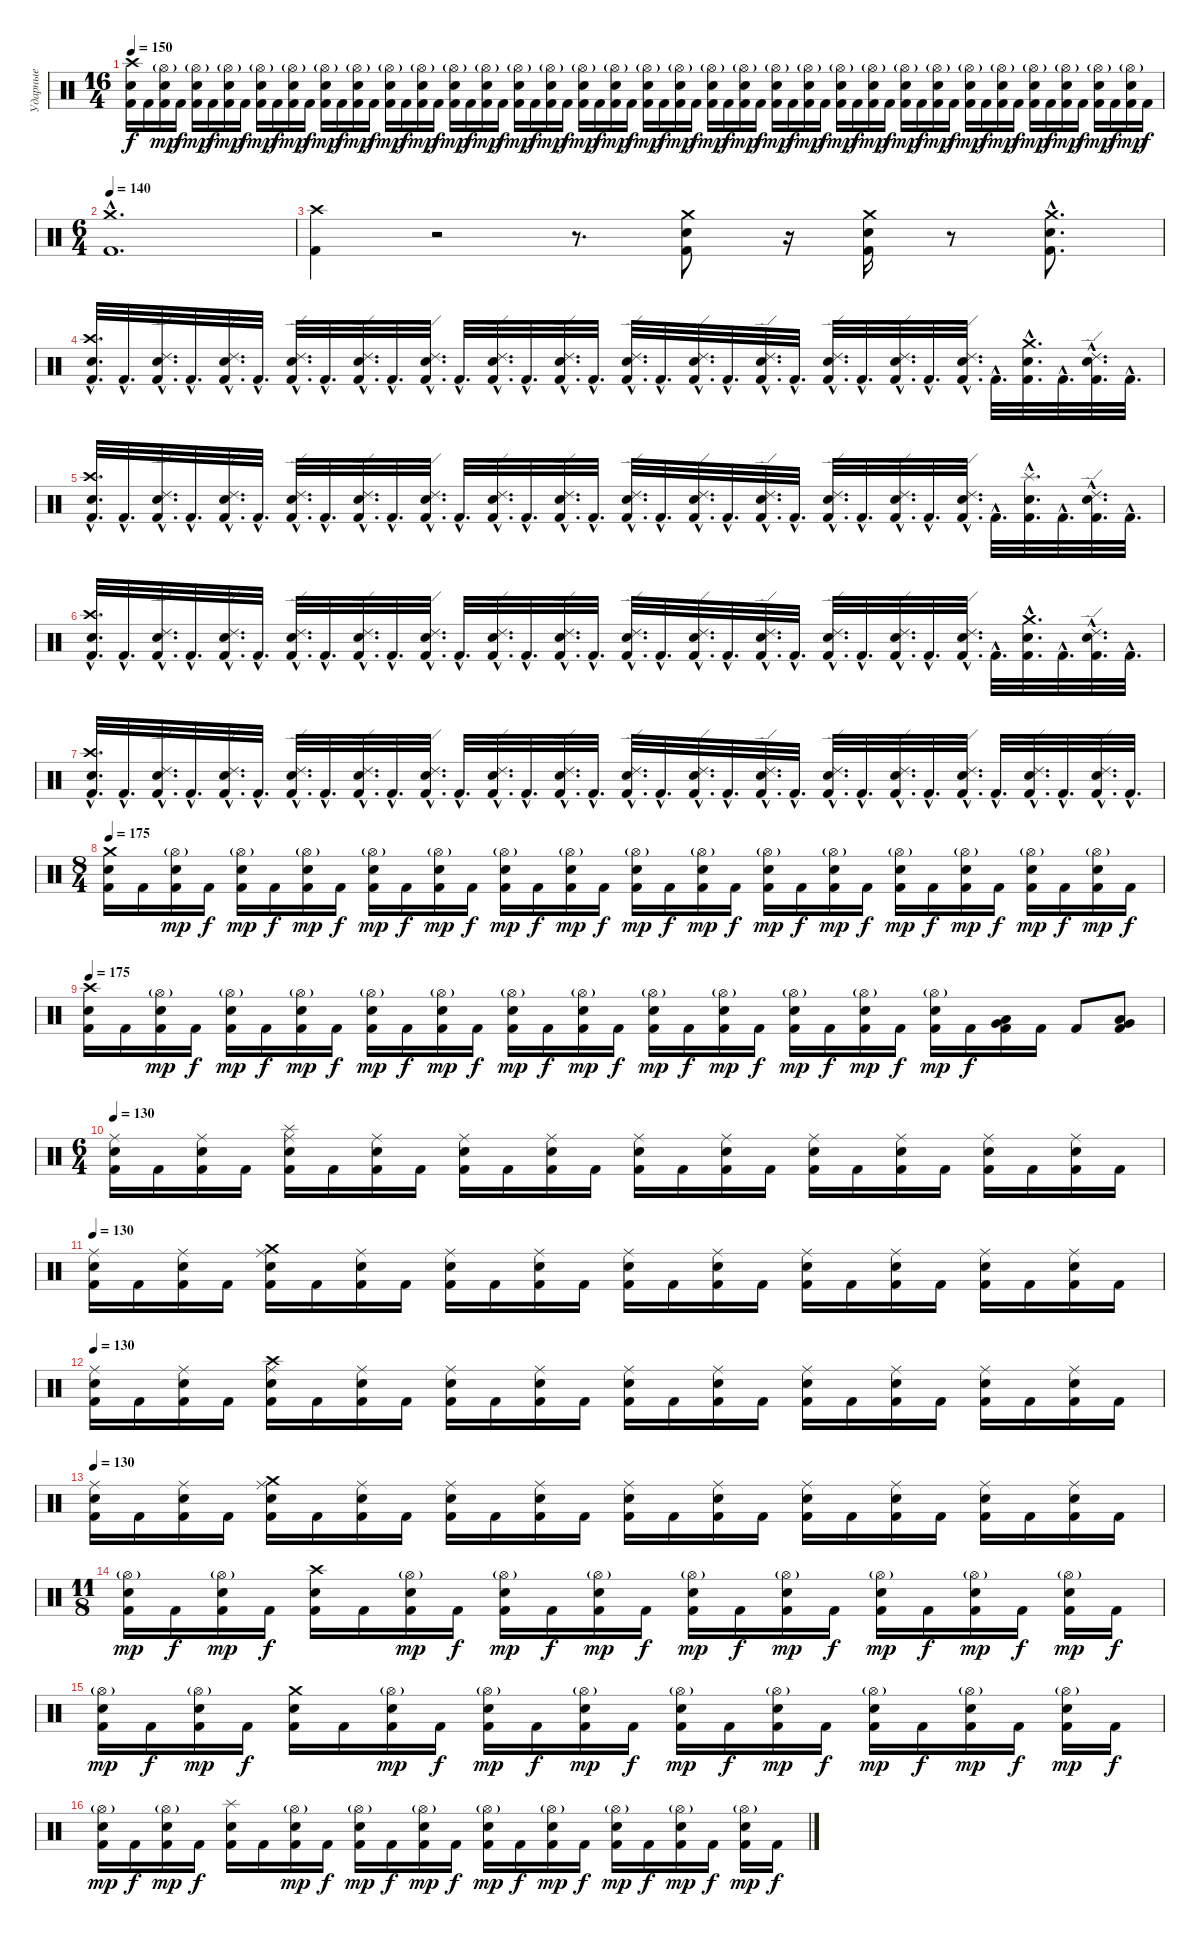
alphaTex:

\track ("Ударные" "Ударные") {instrument percussion}
\staff {score}
\articulation defaults
\ts (16 4)
\tempo 150
\clef neutral
\ks c
("Electric Snare (hit)" "Crash high (hit)" "Kick (hit) 2").16{dy f} "Kick (hit) 2".16 ("Electric Snare (hit)" "Hi-Hat (open)"{g} "Kick (hit) 2").16{dy mp} "Kick (hit) 2".16{dy f} ("Electric Snare (hit)" "Hi-Hat (open)"{g} "Kick (hit) 2").16{dy mp} "Kick (hit) 2".16{dy f} ("Electric Snare (hit)" "Hi-Hat (open)"{g} "Kick (hit) 2").16{dy mp} "Kick (hit) 2".16{dy f} ("Electric Snare (hit)" "Hi-Hat (open)"{g} "Kick (hit) 2").16{dy mp} "Kick (hit) 2".16{dy f} ("Electric Snare (hit)" "Hi-Hat (open)"{g} "Kick (hit) 2").16{dy mp} "Kick (hit) 2".16{dy f} ("Electric Snare (hit)" "Hi-Hat (open)"{g} "Kick (hit) 2").16{dy mp} "Kick (hit) 2".16{dy f} ("Electric Snare (hit)" "Hi-Hat (open)"{g} "Kick (hit) 2").16{dy mp} "Kick (hit) 2".16{dy f} ("Electric Snare (hit)" "Hi-Hat (open)"{g} "Kick (hit) 2").16{dy mp} "Kick (hit) 2".16{dy f} ("Electric Snare (hit)" "Hi-Hat (open)"{g} "Kick (hit) 2").16{dy mp} "Kick (hit) 2".16{dy f} ("Electric Snare (hit)" "Hi-Hat (open)"{g} "Kick (hit) 2").16{dy mp} "Kick (hit) 2".16{dy f} ("Electric Snare (hit)" "Hi-Hat (open)"{g} "Kick (hit) 2").16{dy mp} "Kick (hit) 2".16{dy f} ("Electric Snare (hit)" "Hi-Hat (open)"{g} "Kick (hit) 2").16{dy mp} "Kick (hit) 2".16{dy f} ("Electric Snare (hit)" "Hi-Hat (open)"{g} "Kick (hit) 2").16{dy mp} "Kick (hit) 2".16{dy f} ("Electric Snare (hit)" "Hi-Hat (open)"{g} "Kick (hit) 2").16{dy mp} "Kick (hit) 2".16{dy f} ("Electric Snare (hit)" "Hi-Hat (open)"{g} "Kick (hit) 2").16{dy mp} "Kick (hit) 2".16{dy f} ("Electric Snare (hit)" "Hi-Hat (open)"{g} "Kick (hit) 2").16{dy mp} "Kick (hit) 2".16{dy f} ("Electric Snare (hit)" "Hi-Hat (open)"{g} "Kick (hit) 2").16{dy mp} "Kick (hit) 2".16{dy f} ("Electric Snare (hit)" "Hi-Hat (open)"{g} "Kick (hit) 2").16{dy mp} "Kick (hit) 2".16{dy f} ("Electric Snare (hit)" "Hi-Hat (open)"{g} "Kick (hit) 2").16{dy mp} "Kick (hit) 2".16{dy f} ("Electric Snare (hit)" "Hi-Hat (open)"{g} "Kick (hit) 2").16{dy mp} "Kick (hit) 2".16{dy f} ("Electric Snare (hit)" "Hi-Hat (open)"{g} "Kick (hit) 2").16{dy mp} "Kick (hit) 2".16{dy f} ("Electric Snare (hit)" "Hi-Hat (open)"{g} "Kick (hit) 2").16{dy mp} "Kick (hit) 2".16{dy f} ("Electric Snare (hit)" "Hi-Hat (open)"{g} "Kick (hit) 2").16{dy mp} "Kick (hit) 2".16{dy f} ("Electric Snare (hit)" "Hi-Hat (open)"{g} "Kick (hit) 2").16{dy mp} "Kick (hit) 2".16{dy f} ("Electric Snare (hit)" "Hi-Hat (open)"{g} "Kick (hit) 2").16{dy mp} "Kick (hit) 2".16{dy f} ("Electric Snare (hit)" "Hi-Hat (open)"{g} "Kick (hit) 2").16{dy mp} "Kick (hit) 2".16{dy f} ("Electric Snare (hit)" "Hi-Hat (open)"{g} "Kick (hit) 2").16{dy mp} "Kick (hit) 2".16{dy f} ("Electric Snare (hit)" "Hi-Hat (open)"{g} "Kick (hit) 2").16{dy mp} "Kick (hit) 2".16{dy f} ("Electric Snare (hit)" "Hi-Hat (open)"{g} "Kick (hit) 2").16{dy mp} "Kick (hit) 2".16{dy f} ("Electric Snare (hit)" "Hi-Hat (open)"{g} "Kick (hit) 2").16{dy mp} "Kick (hit) 2".16{dy f} ("Electric Snare (hit)" "Hi-Hat (open)"{g} "Kick (hit) 2").16{dy mp} "Kick (hit) 2".16{dy f} |
\ts (6 4)
\tempo 140
("Crash medium (hit)"{hac} "Kick (hit) 2"{hac}).1{d} |
("Crash high (hit)" "Kick (hit) 2").4 r.2 r.8{d} ("Crash medium (hit)" "Electric Snare (hit)" "Kick (hit) 2").8 r.16 ("Crash medium (hit)" "Electric Snare (hit)" "Kick (hit) 2").16 r.8 ("Crash medium (hit)"{hac} "Electric Snare (hit)"{hac} "Kick (hit) 2"{hac}).8{d} |
("Crash high (hit)"{hac} "Electric Snare (hit)"{hac} "Kick (hit) 2"{hac}).32{d} "Kick (hit) 2"{hac}.32{d} ("Ride (edge) 2"{hac} "Electric Snare (hit)"{hac} "Kick (hit) 2"{hac}).32{d} "Kick (hit) 2"{hac}.32{d} ("Ride (edge) 2"{hac} "Electric Snare (hit)"{hac} "Kick (hit) 2"{hac}).32{d} "Kick (hit) 2"{hac}.32{d} ("Ride (edge) 2"{hac} "Electric Snare (hit)"{hac} "Kick (hit) 2"{hac}).32{d} "Kick (hit) 2"{hac}.32{d} ("Ride (edge) 2"{hac} "Electric Snare (hit)"{hac} "Kick (hit) 2"{hac}).32{d} "Kick (hit) 2"{hac}.32{d} ("Ride (edge) 2"{hac} "Electric Snare (hit)"{hac} "Kick (hit) 2"{hac}).32{d} "Kick (hit) 2"{hac}.32{d} ("Ride (edge) 2"{hac} "Electric Snare (hit)"{hac} "Kick (hit) 2"{hac}).32{d} "Kick (hit) 2"{hac}.32{d} ("Ride (edge) 2"{hac} "Electric Snare (hit)"{hac} "Kick (hit) 2"{hac}).32{d} "Kick (hit) 2"{hac}.32{d} ("Ride (edge) 2"{hac} "Electric Snare (hit)"{hac} "Kick (hit) 2"{hac}).32{d} "Kick (hit) 2"{hac}.32{d} ("Ride (edge) 2"{hac} "Electric Snare (hit)"{hac} "Kick (hit) 2"{hac}).32{d} "Kick (hit) 2"{hac}.32{d} ("Ride (edge) 2"{hac} "Electric Snare (hit)"{hac} "Kick (hit) 2"{hac}).32{d} "Kick (hit) 2"{hac}.32{d} ("Ride (edge) 2"{hac} "Electric Snare (hit)"{hac} "Kick (hit) 2"{hac}).32{d} "Kick (hit) 2"{hac}.32{d} ("Ride (edge) 2"{hac} "Electric Snare (hit)"{hac} "Kick (hit) 2"{hac}).32{d} "Kick (hit) 2"{hac}.32{d} ("Ride (edge) 2"{hac} "Electric Snare (hit)"{hac} "Kick (hit) 2"{hac}).32{d} "Kick (hit) 2"{hac}.32{d} ("Crash medium (hit)"{hac} "Electric Snare (hit)"{hac} "Kick (hit) 2"{hac}).32{d} "Kick (hit) 2"{hac}.32{d} ("Ride (edge) 2"{hac} "Electric Snare (hit)"{hac} "Kick (hit) 2"{hac}).32{d} "Kick (hit) 2"{hac}.32{d} |
("Crash high (hit)"{hac} "Electric Snare (hit)"{hac} "Kick (hit) 2"{hac}).32{d} "Kick (hit) 2"{hac}.32{d} ("Ride (edge) 2"{hac} "Electric Snare (hit)"{hac} "Kick (hit) 2"{hac}).32{d} "Kick (hit) 2"{hac}.32{d} ("Ride (edge) 2"{hac} "Electric Snare (hit)"{hac} "Kick (hit) 2"{hac}).32{d} "Kick (hit) 2"{hac}.32{d} ("Ride (edge) 2"{hac} "Electric Snare (hit)"{hac} "Kick (hit) 2"{hac}).32{d} "Kick (hit) 2"{hac}.32{d} ("Ride (edge) 2"{hac} "Electric Snare (hit)"{hac} "Kick (hit) 2"{hac}).32{d} "Kick (hit) 2"{hac}.32{d} ("Ride (edge) 2"{hac} "Electric Snare (hit)"{hac} "Kick (hit) 2"{hac}).32{d} "Kick (hit) 2"{hac}.32{d} ("Ride (edge) 2"{hac} "Electric Snare (hit)"{hac} "Kick (hit) 2"{hac}).32{d} "Kick (hit) 2"{hac}.32{d} ("Ride (edge) 2"{hac} "Electric Snare (hit)"{hac} "Kick (hit) 2"{hac}).32{d} "Kick (hit) 2"{hac}.32{d} ("Ride (edge) 2"{hac} "Electric Snare (hit)"{hac} "Kick (hit) 2"{hac}).32{d} "Kick (hit) 2"{hac}.32{d} ("Ride (edge) 2"{hac} "Electric Snare (hit)"{hac} "Kick (hit) 2"{hac}).32{d} "Kick (hit) 2"{hac}.32{d} ("Ride (edge) 2"{hac} "Electric Snare (hit)"{hac} "Kick (hit) 2"{hac}).32{d} "Kick (hit) 2"{hac}.32{d} ("Ride (edge) 2"{hac} "Electric Snare (hit)"{hac} "Kick (hit) 2"{hac}).32{d} "Kick (hit) 2"{hac}.32{d} ("Ride (edge) 2"{hac} "Electric Snare (hit)"{hac} "Kick (hit) 2"{hac}).32{d} "Kick (hit) 2"{hac}.32{d} ("Ride (edge) 2"{hac} "Electric Snare (hit)"{hac} "Kick (hit) 2"{hac}).32{d} "Kick (hit) 2"{hac}.32{d} ("Splash (hit)"{hac} "Electric Snare (hit)"{hac} "Kick (hit) 2"{hac}).32{d} "Kick (hit) 2"{hac}.32{d} ("Ride (edge) 2"{hac} "Electric Snare (hit)"{hac} "Kick (hit) 2"{hac}).32{d} "Kick (hit) 2"{hac}.32{d} |
("Crash high (hit)"{hac} "Electric Snare (hit)"{hac} "Kick (hit) 2"{hac}).32{d} "Kick (hit) 2"{hac}.32{d} ("Ride (edge) 2"{hac} "Electric Snare (hit)"{hac} "Kick (hit) 2"{hac}).32{d} "Kick (hit) 2"{hac}.32{d} ("Ride (edge) 2"{hac} "Electric Snare (hit)"{hac} "Kick (hit) 2"{hac}).32{d} "Kick (hit) 2"{hac}.32{d} ("Ride (edge) 2"{hac} "Electric Snare (hit)"{hac} "Kick (hit) 2"{hac}).32{d} "Kick (hit) 2"{hac}.32{d} ("Ride (edge) 2"{hac} "Electric Snare (hit)"{hac} "Kick (hit) 2"{hac}).32{d} "Kick (hit) 2"{hac}.32{d} ("Ride (edge) 2"{hac} "Electric Snare (hit)"{hac} "Kick (hit) 2"{hac}).32{d} "Kick (hit) 2"{hac}.32{d} ("Ride (edge) 2"{hac} "Electric Snare (hit)"{hac} "Kick (hit) 2"{hac}).32{d} "Kick (hit) 2"{hac}.32{d} ("Ride (edge) 2"{hac} "Electric Snare (hit)"{hac} "Kick (hit) 2"{hac}).32{d} "Kick (hit) 2"{hac}.32{d} ("Ride (edge) 2"{hac} "Electric Snare (hit)"{hac} "Kick (hit) 2"{hac}).32{d} "Kick (hit) 2"{hac}.32{d} ("Ride (edge) 2"{hac} "Electric Snare (hit)"{hac} "Kick (hit) 2"{hac}).32{d} "Kick (hit) 2"{hac}.32{d} ("Ride (edge) 2"{hac} "Electric Snare (hit)"{hac} "Kick (hit) 2"{hac}).32{d} "Kick (hit) 2"{hac}.32{d} ("Ride (edge) 2"{hac} "Electric Snare (hit)"{hac} "Kick (hit) 2"{hac}).32{d} "Kick (hit) 2"{hac}.32{d} ("Ride (edge) 2"{hac} "Electric Snare (hit)"{hac} "Kick (hit) 2"{hac}).32{d} "Kick (hit) 2"{hac}.32{d} ("Ride (edge) 2"{hac} "Electric Snare (hit)"{hac} "Kick (hit) 2"{hac}).32{d} "Kick (hit) 2"{hac}.32{d} ("Crash medium (hit)"{hac} "Electric Snare (hit)"{hac} "Kick (hit) 2"{hac}).32{d} "Kick (hit) 2"{hac}.32{d} ("Ride (edge) 2"{hac} "Electric Snare (hit)"{hac} "Kick (hit) 2"{hac}).32{d} "Kick (hit) 2"{hac}.32{d} |
("Crash high (hit)"{hac} "Electric Snare (hit)"{hac} "Kick (hit) 2"{hac}).32{d} "Kick (hit) 2"{hac}.32{d} ("Ride (edge) 2"{hac} "Electric Snare (hit)"{hac} "Kick (hit) 2"{hac}).32{d} "Kick (hit) 2"{hac}.32{d} ("Ride (edge) 2"{hac} "Electric Snare (hit)"{hac} "Kick (hit) 2"{hac}).32{d} "Kick (hit) 2"{hac}.32{d} ("Ride (edge) 2"{hac} "Electric Snare (hit)"{hac} "Kick (hit) 2"{hac}).32{d} "Kick (hit) 2"{hac}.32{d} ("Ride (edge) 2"{hac} "Electric Snare (hit)"{hac} "Kick (hit) 2"{hac}).32{d} "Kick (hit) 2"{hac}.32{d} ("Ride (edge) 2"{hac} "Electric Snare (hit)"{hac} "Kick (hit) 2"{hac}).32{d} "Kick (hit) 2"{hac}.32{d} ("Ride (edge) 2"{hac} "Electric Snare (hit)"{hac} "Kick (hit) 2"{hac}).32{d} "Kick (hit) 2"{hac}.32{d} ("Ride (edge) 2"{hac} "Electric Snare (hit)"{hac} "Kick (hit) 2"{hac}).32{d} "Kick (hit) 2"{hac}.32{d} ("Ride (edge) 2"{hac} "Electric Snare (hit)"{hac} "Kick (hit) 2"{hac}).32{d} "Kick (hit) 2"{hac}.32{d} ("Ride (edge) 2"{hac} "Electric Snare (hit)"{hac} "Kick (hit) 2"{hac}).32{d} "Kick (hit) 2"{hac}.32{d} ("Ride (edge) 2"{hac} "Electric Snare (hit)"{hac} "Kick (hit) 2"{hac}).32{d} "Kick (hit) 2"{hac}.32{d} ("Ride (edge) 2"{hac} "Electric Snare (hit)"{hac} "Kick (hit) 2"{hac}).32{d} "Kick (hit) 2"{hac}.32{d} ("Ride (edge) 2"{hac} "Electric Snare (hit)"{hac} "Kick (hit) 2"{hac}).32{d} "Kick (hit) 2"{hac}.32{d} ("Ride (edge) 2"{hac} "Electric Snare (hit)"{hac} "Kick (hit) 2"{hac}).32{d} "Kick (hit) 2"{hac}.32{d} ("Ride (edge) 2"{hac} "Electric Snare (hit)"{hac} "Kick (hit) 2"{hac}).32{d} "Kick (hit) 2"{hac}.32{d} ("Ride (edge) 2"{hac} "Electric Snare (hit)"{hac} "Kick (hit) 2"{hac}).32{d} "Kick (hit) 2"{hac}.32{d} |
\ts (8 4)
\tempo 175
("Crash medium (hit)" "Electric Snare (hit)" "Kick (hit) 2").16 "Kick (hit) 2".16 ("Hi-Hat (open)"{g} "Electric Snare (hit)" "Kick (hit) 2").16{dy mp} "Kick (hit) 2".16{dy f} ("Hi-Hat (open)"{g} "Electric Snare (hit)" "Kick (hit) 2").16{dy mp} "Kick (hit) 2".16{dy f} ("Hi-Hat (open)"{g} "Electric Snare (hit)" "Kick (hit) 2").16{dy mp} "Kick (hit) 2".16{dy f} ("Hi-Hat (open)"{g} "Electric Snare (hit)" "Kick (hit) 2").16{dy mp} "Kick (hit) 2".16{dy f} ("Hi-Hat (open)"{g} "Electric Snare (hit)" "Kick (hit) 2").16{dy mp} "Kick (hit) 2".16{dy f} ("Hi-Hat (open)"{g} "Electric Snare (hit)" "Kick (hit) 2").16{dy mp} "Kick (hit) 2".16{dy f} ("Hi-Hat (open)"{g} "Electric Snare (hit)" "Kick (hit) 2").16{dy mp} "Kick (hit) 2".16{dy f} ("Hi-Hat (open)"{g} "Electric Snare (hit)" "Kick (hit) 2").16{dy mp} "Kick (hit) 2".16{dy f} ("Hi-Hat (open)"{g} "Electric Snare (hit)" "Kick (hit) 2").16{dy mp} "Kick (hit) 2".16{dy f} ("Hi-Hat (open)"{g} "Electric Snare (hit)" "Kick (hit) 2").16{dy mp} "Kick (hit) 2".16{dy f} ("Hi-Hat (open)"{g} "Electric Snare (hit)" "Kick (hit) 2").16{dy mp} "Kick (hit) 2".16{dy f} ("Hi-Hat (open)"{g} "Electric Snare (hit)" "Kick (hit) 2").16{dy mp} "Kick (hit) 2".16{dy f} ("Hi-Hat (open)"{g} "Electric Snare (hit)" "Kick (hit) 2").16{dy mp} "Kick (hit) 2".16{dy f} ("Hi-Hat (open)"{g} "Electric Snare (hit)" "Kick (hit) 2").16{dy mp} "Kick (hit) 2".16{dy f} ("Hi-Hat (open)"{g} "Electric Snare (hit)" "Kick (hit) 2").16{dy mp} "Kick (hit) 2".16{dy f} |
\tempo 175
("Crash high (hit)" "Electric Snare (hit)" "Kick (hit) 2").16 "Kick (hit) 2".16 ("Hi-Hat (open)"{g} "Electric Snare (hit)" "Kick (hit) 2").16{dy mp} "Kick (hit) 2".16{dy f} ("Hi-Hat (open)"{g} "Electric Snare (hit)" "Kick (hit) 2").16{dy mp} "Kick (hit) 2".16{dy f} ("Hi-Hat (open)"{g} "Electric Snare (hit)" "Kick (hit) 2").16{dy mp} "Kick (hit) 2".16{dy f} ("Hi-Hat (open)"{g} "Electric Snare (hit)" "Kick (hit) 2").16{dy mp} "Kick (hit) 2".16{dy f} ("Hi-Hat (open)"{g} "Electric Snare (hit)" "Kick (hit) 2").16{dy mp} "Kick (hit) 2".16{dy f} ("Hi-Hat (open)"{g} "Electric Snare (hit)" "Kick (hit) 2").16{dy mp} "Kick (hit) 2".16{dy f} ("Hi-Hat (open)"{g} "Electric Snare (hit)" "Kick (hit) 2").16{dy mp} "Kick (hit) 2".16{dy f} ("Hi-Hat (open)"{g} "Electric Snare (hit)" "Kick (hit) 2").16{dy mp} "Kick (hit) 2".16{dy f} ("Hi-Hat (open)"{g} "Electric Snare (hit)" "Kick (hit) 2").16{dy mp} "Kick (hit) 2".16{dy f} ("Hi-Hat (open)"{g} "Electric Snare (hit)" "Kick (hit) 2").16{dy mp} "Kick (hit) 2".16{dy f} ("Hi-Hat (open)"{g} "Electric Snare (hit)" "Kick (hit) 2").16{dy mp} "Kick (hit) 2".16{dy f} ("Hi-Hat (open)"{g} "Electric Snare (hit)" "Kick (hit) 2").16{dy mp} "Kick (hit) 2".16{dy f} ("Low Tom (hit)" "Very Low Tom (hit)" "Kick (hit) 2").16 "Kick (hit) 2".16 "Kick (hit) 2".8 ("Low Tom (hit)" "Very Low Tom (hit)" "Kick (hit) 2").8 |
\ts (6 4)
\tempo 130
("Electric Snare (hit)" "Ride (middle)" "Kick (hit) 2").16 "Kick (hit) 2".16 ("Electric Snare (hit)" "Ride (middle)" "Kick (hit) 2").16 "Kick (hit) 2".16 ("Splash (hit)" "Electric Snare (hit)" "Ride (middle)" "Kick (hit) 2").16 "Kick (hit) 2".16 ("Electric Snare (hit)" "Ride (middle)" "Kick (hit) 2").16 "Kick (hit) 2".16 ("Electric Snare (hit)" "Ride (middle)" "Kick (hit) 2").16 "Kick (hit) 2".16 ("Electric Snare (hit)" "Ride (middle)" "Kick (hit) 2").16 "Kick (hit) 2".16 ("Electric Snare (hit)" "Ride (middle)" "Kick (hit) 2").16 "Kick (hit) 2".16 ("Electric Snare (hit)" "Ride (middle)" "Kick (hit) 2").16 "Kick (hit) 2".16 ("Electric Snare (hit)" "Ride (middle)" "Kick (hit) 2").16 "Kick (hit) 2".16 ("Electric Snare (hit)" "Ride (middle)" "Kick (hit) 2").16 "Kick (hit) 2".16 ("Electric Snare (hit)" "Ride (middle)" "Kick (hit) 2").16 "Kick (hit) 2".16 ("Electric Snare (hit)" "Ride (middle)" "Kick (hit) 2").16 "Kick (hit) 2".16 |
\tempo 130
("Electric Snare (hit)" "Ride (middle)" "Kick (hit) 2").16 "Kick (hit) 2".16 ("Electric Snare (hit)" "Ride (middle)" "Kick (hit) 2").16 "Kick (hit) 2".16 ("Crash medium (hit)" "Electric Snare (hit)" "Ride (middle)" "Kick (hit) 2").16 "Kick (hit) 2".16 ("Electric Snare (hit)" "Ride (middle)" "Kick (hit) 2").16 "Kick (hit) 2".16 ("Electric Snare (hit)" "Ride (middle)" "Kick (hit) 2").16 "Kick (hit) 2".16 ("Electric Snare (hit)" "Ride (middle)" "Kick (hit) 2").16 "Kick (hit) 2".16 ("Electric Snare (hit)" "Ride (middle)" "Kick (hit) 2").16 "Kick (hit) 2".16 ("Electric Snare (hit)" "Ride (middle)" "Kick (hit) 2").16 "Kick (hit) 2".16 ("Electric Snare (hit)" "Ride (middle)" "Kick (hit) 2").16 "Kick (hit) 2".16 ("Electric Snare (hit)" "Ride (middle)" "Kick (hit) 2").16 "Kick (hit) 2".16 ("Electric Snare (hit)" "Ride (middle)" "Kick (hit) 2").16 "Kick (hit) 2".16 ("Electric Snare (hit)" "Ride (middle)" "Kick (hit) 2").16 "Kick (hit) 2".16 |
\tempo 130
("Electric Snare (hit)" "Ride (middle)" "Kick (hit) 2").16 "Kick (hit) 2".16 ("Electric Snare (hit)" "Ride (middle)" "Kick (hit) 2").16 "Kick (hit) 2".16 ("Crash high (hit)" "Electric Snare (hit)" "Ride (middle)" "Kick (hit) 2").16 "Kick (hit) 2".16 ("Electric Snare (hit)" "Ride (middle)" "Kick (hit) 2").16 "Kick (hit) 2".16 ("Electric Snare (hit)" "Ride (middle)" "Kick (hit) 2").16 "Kick (hit) 2".16 ("Electric Snare (hit)" "Ride (middle)" "Kick (hit) 2").16 "Kick (hit) 2".16 ("Electric Snare (hit)" "Ride (middle)" "Kick (hit) 2").16 "Kick (hit) 2".16 ("Electric Snare (hit)" "Ride (middle)" "Kick (hit) 2").16 "Kick (hit) 2".16 ("Electric Snare (hit)" "Ride (middle)" "Kick (hit) 2").16 "Kick (hit) 2".16 ("Electric Snare (hit)" "Ride (middle)" "Kick (hit) 2").16 "Kick (hit) 2".16 ("Electric Snare (hit)" "Ride (middle)" "Kick (hit) 2").16 "Kick (hit) 2".16 ("Electric Snare (hit)" "Ride (middle)" "Kick (hit) 2").16 "Kick (hit) 2".16 |
\tempo 130
("Electric Snare (hit)" "Ride (middle)" "Kick (hit) 2").16 "Kick (hit) 2".16 ("Electric Snare (hit)" "Ride (middle)" "Kick (hit) 2").16 "Kick (hit) 2".16 ("Crash medium (hit)" "Electric Snare (hit)" "Ride (middle)" "Kick (hit) 2").16 "Kick (hit) 2".16 ("Electric Snare (hit)" "Ride (middle)" "Kick (hit) 2").16 "Kick (hit) 2".16 ("Electric Snare (hit)" "Ride (middle)" "Kick (hit) 2").16 "Kick (hit) 2".16 ("Electric Snare (hit)" "Ride (middle)" "Kick (hit) 2").16 "Kick (hit) 2".16 ("Electric Snare (hit)" "Ride (middle)" "Kick (hit) 2").16 "Kick (hit) 2".16 ("Electric Snare (hit)" "Ride (middle)" "Kick (hit) 2").16 "Kick (hit) 2".16 ("Electric Snare (hit)" "Ride (middle)" "Kick (hit) 2").16 "Kick (hit) 2".16 ("Electric Snare (hit)" "Ride (middle)" "Kick (hit) 2").16 "Kick (hit) 2".16 ("Electric Snare (hit)" "Ride (middle)" "Kick (hit) 2").16 "Kick (hit) 2".16 ("Electric Snare (hit)" "Ride (middle)" "Kick (hit) 2").16 "Kick (hit) 2".16 |
\ts (11 8)
("Electric Snare (hit)" "Hi-Hat (open)"{g} "Kick (hit) 2").16{dy mp} "Kick (hit) 2".16{dy f} ("Electric Snare (hit)" "Hi-Hat (open)"{g} "Kick (hit) 2").16{dy mp} "Kick (hit) 2".16{dy f} ("Electric Snare (hit)" "Crash high (hit)" "Kick (hit) 2").16 "Kick (hit) 2".16 ("Electric Snare (hit)" "Hi-Hat (open)"{g} "Kick (hit) 2").16{dy mp} "Kick (hit) 2".16{dy f} ("Electric Snare (hit)" "Hi-Hat (open)"{g} "Kick (hit) 2").16{dy mp} "Kick (hit) 2".16{dy f} ("Electric Snare (hit)" "Hi-Hat (open)"{g} "Kick (hit) 2").16{dy mp} "Kick (hit) 2".16{dy f} ("Electric Snare (hit)" "Hi-Hat (open)"{g} "Kick (hit) 2").16{dy mp} "Kick (hit) 2".16{dy f} ("Electric Snare (hit)" "Hi-Hat (open)"{g} "Kick (hit) 2").16{dy mp} "Kick (hit) 2".16{dy f} ("Electric Snare (hit)" "Hi-Hat (open)"{g} "Kick (hit) 2").16{dy mp} "Kick (hit) 2".16{dy f} ("Electric Snare (hit)" "Hi-Hat (open)"{g} "Kick (hit) 2").16{dy mp} "Kick (hit) 2".16{dy f} ("Electric Snare (hit)" "Hi-Hat (open)"{g} "Kick (hit) 2").16{dy mp} "Kick (hit) 2".16{dy f} |
("Electric Snare (hit)" "Hi-Hat (open)"{g} "Kick (hit) 2").16{dy mp} "Kick (hit) 2".16{dy f} ("Electric Snare (hit)" "Hi-Hat (open)"{g} "Kick (hit) 2").16{dy mp} "Kick (hit) 2".16{dy f} ("Electric Snare (hit)" "Crash medium (hit)" "Kick (hit) 2").16 "Kick (hit) 2".16 ("Electric Snare (hit)" "Hi-Hat (open)"{g} "Kick (hit) 2").16{dy mp} "Kick (hit) 2".16{dy f} ("Electric Snare (hit)" "Hi-Hat (open)"{g} "Kick (hit) 2").16{dy mp} "Kick (hit) 2".16{dy f} ("Electric Snare (hit)" "Hi-Hat (open)"{g} "Kick (hit) 2").16{dy mp} "Kick (hit) 2".16{dy f} ("Electric Snare (hit)" "Hi-Hat (open)"{g} "Kick (hit) 2").16{dy mp} "Kick (hit) 2".16{dy f} ("Electric Snare (hit)" "Hi-Hat (open)"{g} "Kick (hit) 2").16{dy mp} "Kick (hit) 2".16{dy f} ("Electric Snare (hit)" "Hi-Hat (open)"{g} "Kick (hit) 2").16{dy mp} "Kick (hit) 2".16{dy f} ("Electric Snare (hit)" "Hi-Hat (open)"{g} "Kick (hit) 2").16{dy mp} "Kick (hit) 2".16{dy f} ("Electric Snare (hit)" "Hi-Hat (open)"{g} "Kick (hit) 2").16{dy mp} "Kick (hit) 2".16{dy f} |
("Electric Snare (hit)" "Hi-Hat (open)"{g} "Kick (hit) 2").16{dy mp} "Kick (hit) 2".16{dy f} ("Electric Snare (hit)" "Hi-Hat (open)"{g} "Kick (hit) 2").16{dy mp} "Kick (hit) 2".16{dy f} ("Electric Snare (hit)" "Splash (hit)" "Kick (hit) 2").16 "Kick (hit) 2".16 ("Electric Snare (hit)" "Hi-Hat (open)"{g} "Kick (hit) 2").16{dy mp} "Kick (hit) 2".16{dy f} ("Electric Snare (hit)" "Hi-Hat (open)"{g} "Kick (hit) 2").16{dy mp} "Kick (hit) 2".16{dy f} ("Electric Snare (hit)" "Hi-Hat (open)"{g} "Kick (hit) 2").16{dy mp} "Kick (hit) 2".16{dy f} ("Electric Snare (hit)" "Hi-Hat (open)"{g} "Kick (hit) 2").16{dy mp} "Kick (hit) 2".16{dy f} ("Electric Snare (hit)" "Hi-Hat (open)"{g} "Kick (hit) 2").16{dy mp} "Kick (hit) 2".16{dy f} ("Electric Snare (hit)" "Hi-Hat (open)"{g} "Kick (hit) 2").16{dy mp} "Kick (hit) 2".16{dy f} ("Electric Snare (hit)" "Hi-Hat (open)"{g} "Kick (hit) 2").16{dy mp} "Kick (hit) 2".16{dy f} ("Electric Snare (hit)" "Hi-Hat (open)"{g} "Kick (hit) 2").16{dy mp} "Kick (hit) 2".16{dy f}
